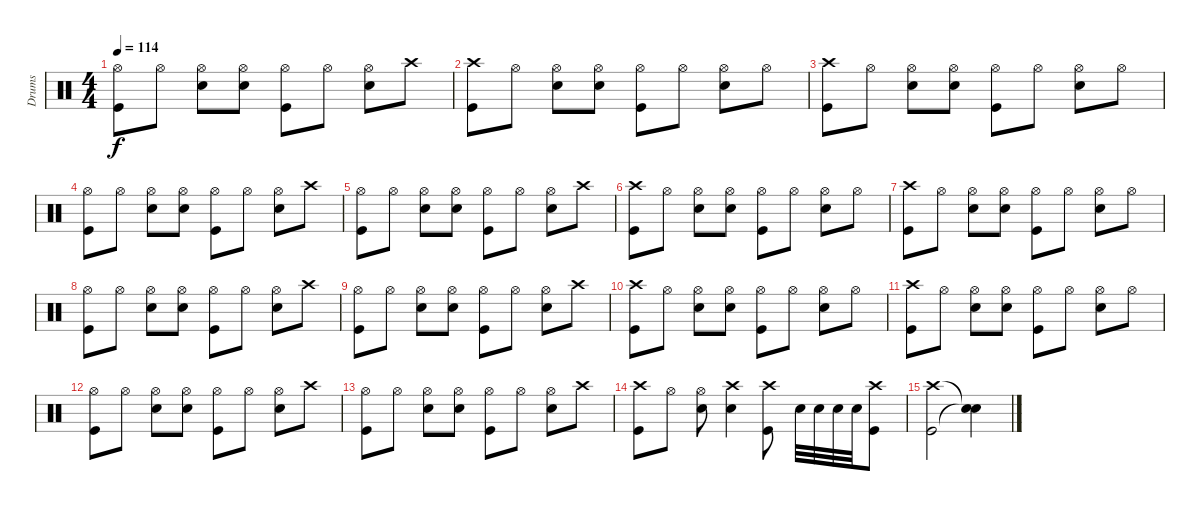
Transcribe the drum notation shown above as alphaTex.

\track ("Drums" "Drums") {instrument percussion}
\staff {score}
\articulation defaults
\ts (4 4)
\tempo 114
\clef neutral
\ks c
("Hi-Hat (open)" "Kick (hit)").8{dy f} "Hi-Hat (open)".8 ("Hi-Hat (open)" "Snare (hit) 2").8 ("Hi-Hat (open)" "Snare (hit) 2").8 ("Hi-Hat (open)" "Kick (hit)").8 "Hi-Hat (open)".8 ("Hi-Hat (open)" "Snare (hit) 2").8 "Crash high (hit)".8 |
("Crash high (hit)" "Kick (hit)").8 "Hi-Hat (open)".8 ("Hi-Hat (open)" "Snare (hit) 2").8 ("Hi-Hat (open)" "Snare (hit) 2").8 ("Hi-Hat (open)" "Kick (hit)").8 "Hi-Hat (open)".8 ("Hi-Hat (open)" "Snare (hit) 2").8 "Hi-Hat (open)".8 |
("Crash high (hit)" "Kick (hit)").8 "Hi-Hat (open)".8 ("Hi-Hat (open)" "Snare (hit) 2").8 ("Hi-Hat (open)" "Snare (hit) 2").8 ("Hi-Hat (open)" "Kick (hit)").8 "Hi-Hat (open)".8 ("Hi-Hat (open)" "Snare (hit) 2").8 "Hi-Hat (open)".8 |
("Hi-Hat (open)" "Kick (hit)").8 "Hi-Hat (open)".8 ("Hi-Hat (open)" "Snare (hit) 2").8 ("Hi-Hat (open)" "Snare (hit) 2").8 ("Hi-Hat (open)" "Kick (hit)").8 "Hi-Hat (open)".8 ("Hi-Hat (open)" "Snare (hit) 2").8 "Crash high (hit)".8 |
("Hi-Hat (open)" "Kick (hit)").8 "Hi-Hat (open)".8 ("Hi-Hat (open)" "Snare (hit) 2").8 ("Hi-Hat (open)" "Snare (hit) 2").8 ("Hi-Hat (open)" "Kick (hit)").8 "Hi-Hat (open)".8 ("Hi-Hat (open)" "Snare (hit) 2").8 "Crash high (hit)".8 |
("Crash high (hit)" "Kick (hit)").8 "Hi-Hat (open)".8 ("Hi-Hat (open)" "Snare (hit) 2").8 ("Hi-Hat (open)" "Snare (hit) 2").8 ("Hi-Hat (open)" "Kick (hit)").8 "Hi-Hat (open)".8 ("Hi-Hat (open)" "Snare (hit) 2").8 "Hi-Hat (open)".8 |
("Crash high (hit)" "Kick (hit)").8 "Hi-Hat (open)".8 ("Hi-Hat (open)" "Snare (hit) 2").8 ("Hi-Hat (open)" "Snare (hit) 2").8 ("Hi-Hat (open)" "Kick (hit)").8 "Hi-Hat (open)".8 ("Hi-Hat (open)" "Snare (hit) 2").8 "Hi-Hat (open)".8 |
("Hi-Hat (open)" "Kick (hit)").8 "Hi-Hat (open)".8 ("Hi-Hat (open)" "Snare (hit) 2").8 ("Hi-Hat (open)" "Snare (hit) 2").8 ("Hi-Hat (open)" "Kick (hit)").8 "Hi-Hat (open)".8 ("Hi-Hat (open)" "Snare (hit) 2").8 "Crash high (hit)".8 |
("Hi-Hat (open)" "Kick (hit)").8 "Hi-Hat (open)".8 ("Hi-Hat (open)" "Snare (hit) 2").8 ("Hi-Hat (open)" "Snare (hit) 2").8 ("Hi-Hat (open)" "Kick (hit)").8 "Hi-Hat (open)".8 ("Hi-Hat (open)" "Snare (hit) 2").8 "Crash high (hit)".8 |
("Crash high (hit)" "Kick (hit)").8 "Hi-Hat (open)".8 ("Hi-Hat (open)" "Snare (hit) 2").8 ("Hi-Hat (open)" "Snare (hit) 2").8 ("Hi-Hat (open)" "Kick (hit)").8 "Hi-Hat (open)".8 ("Hi-Hat (open)" "Snare (hit) 2").8 "Hi-Hat (open)".8 |
("Crash high (hit)" "Kick (hit)").8 "Hi-Hat (open)".8 ("Hi-Hat (open)" "Snare (hit) 2").8 ("Hi-Hat (open)" "Snare (hit) 2").8 ("Hi-Hat (open)" "Kick (hit)").8 "Hi-Hat (open)".8 ("Hi-Hat (open)" "Snare (hit) 2").8 "Hi-Hat (open)".8 |
("Hi-Hat (open)" "Kick (hit)").8 "Hi-Hat (open)".8 ("Hi-Hat (open)" "Snare (hit) 2").8 ("Hi-Hat (open)" "Snare (hit) 2").8 ("Hi-Hat (open)" "Kick (hit)").8 "Hi-Hat (open)".8 ("Hi-Hat (open)" "Snare (hit) 2").8 "Crash high (hit)".8 |
("Hi-Hat (open)" "Kick (hit)").8 "Hi-Hat (open)".8 ("Hi-Hat (open)" "Snare (hit) 2").8 ("Hi-Hat (open)" "Snare (hit) 2").8 ("Hi-Hat (open)" "Kick (hit)").8 "Hi-Hat (open)".8 ("Hi-Hat (open)" "Snare (hit) 2").8 "Crash high (hit)".8 |
("Crash high (hit)" "Kick (hit)").8 "Hi-Hat (open)".8 ("Hi-Hat (open)" "Snare (hit) 2").8 ("Crash high (hit)" "Snare (hit) 2").4 ("Crash high (hit)" "Kick (hit)").8 "Snare (hit) 2".32 "Snare (hit) 2".32 "Snare (hit) 2".32 "Snare (hit) 2".32 ("Crash high (hit)" "Kick (hit)").8 |
("Crash high (hit)" "Kick (hit)").2 ("Snare (hit)"{t} "Snare (hit)"{t}).4
